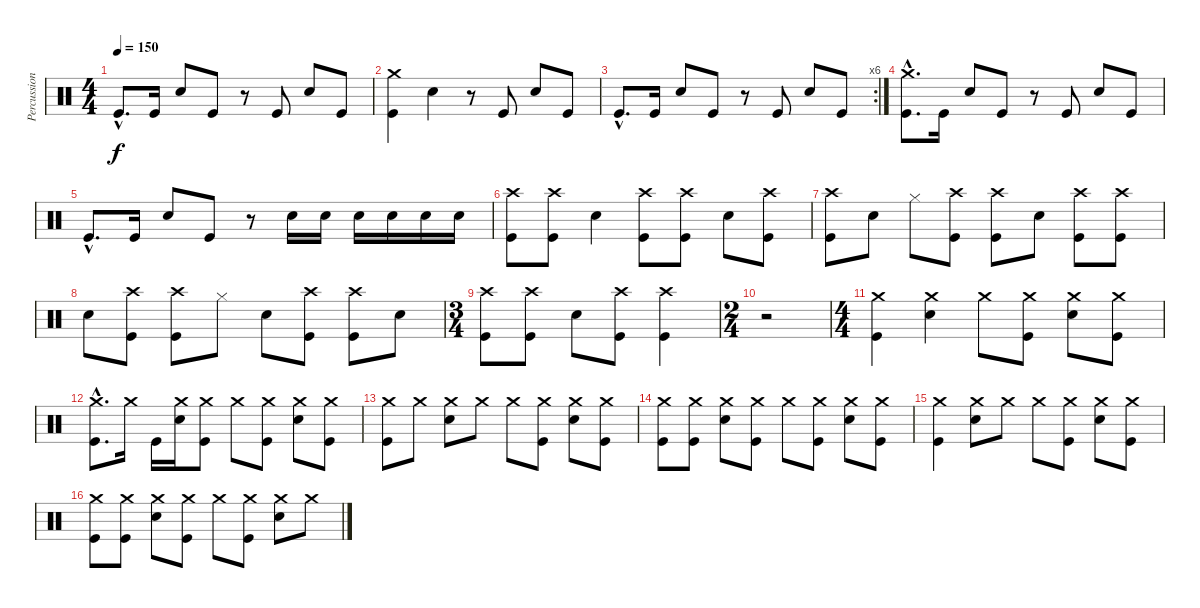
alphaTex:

\track ("Percussion" "Percussion") {instrument percussion}
\staff {score}
\articulation defaults
\ts (4 4)
\tempo 150
\clef neutral
\ks c "Kick (hit)"{hac}.8{d dy f} "Kick (hit)".16 "Electric Snare (hit)".8 "Kick (hit)".8
r.8 "Kick (hit)".8 "Electric Snare (hit)".8 "Kick (hit)".8 |
("Crash medium (hit)" "Kick (hit)").4 "Electric Snare (hit)".4 r.8 "Kick (hit)".8 "Electric Snare (hit)".8 "Kick (hit)".8 |
\rc 6 "Kick (hit)"{hac}.8{d} "Kick (hit)".16 "Electric Snare (hit)".8 "Kick (hit)".8
r.8 "Kick (hit)".8 "Electric Snare (hit)".8 "Kick (hit)".8 |
("Crash medium (hit)"{hac} "Kick (hit)"{hac}).8{d} "Kick (hit)".16 "Electric Snare (hit)".8 "Kick (hit)".8 r.8 "Kick (hit)".8 "Electric Snare (hit)".8 "Kick (hit)".8 |
"Kick (hit)"{hac}.8{d} "Kick (hit)".16 "Electric Snare (hit)".8 "Kick (hit)".8 r.8 "Electric Snare (hit)".16 "Electric Snare (hit)".16 "Electric Snare (hit)".16 "Electric Snare (hit)".16 "Electric Snare (hit)".16 "Electric Snare (hit)".16 |
("Kick (hit)" "Crash high (hit)").8 ("Kick (hit)" "Crash high (hit)").8 "Electric Snare (hit)".4 ("Kick (hit)" "Crash high (hit)").8 ("Kick (hit)" "Crash high (hit)").8 "Electric Snare (hit)".8 ("Crash high (hit)" "Kick (hit)").8 |
("Crash high (hit)" "Kick (hit)").8 "Electric Snare (hit)".8 "Hi-Hat (closed)".8 ("Crash high (hit)" "Kick (hit)").8 ("Crash high (hit)" "Kick (hit)").8 "Electric Snare (hit)".8 ("Crash high (hit)" "Kick (hit)").8 ("Crash high (hit)" "Kick (hit)").8 |
"Electric Snare (hit)".8 ("Crash high (hit)" "Kick (hit)").8 ("Crash high (hit)" "Kick (hit)").8 "Hi-Hat (closed)".8 "Electric Snare (hit)".8 ("Crash high (hit)" "Kick (hit)").8 ("Crash high (hit)" "Kick (hit)").8 "Electric Snare (hit)".8 |
\ts (3 4)
("Crash high (hit)" "Kick (hit)").8 ("Crash high (hit)" "Kick (hit)").8 "Electric Snare (hit)".8 ("Crash high (hit)" "Kick (hit)").8 ("Crash high (hit)" "Kick (hit)").4 |
\ts (2 4)
r.2 |
\ts (4 4)
("Kick (hit)" "Crash medium (hit)").4 ("Crash medium (hit)" "Electric Snare (hit)").4 "Crash medium (hit)".8 ("Kick (hit)" "Crash medium (hit)").8 ("Electric Snare (hit)" "Crash medium (hit)").8 ("Kick (hit)" "Crash medium (hit)").8 |
("Crash medium (hit)"{hac} "Kick (hit)"{hac}).8{d} "Crash medium (hit)".16 "Kick (hit)".16 ("Crash medium (hit)" "Electric Snare (hit)").16 ("Crash medium (hit)" "Kick (hit)").8 "Crash medium (hit)".8 ("Crash medium (hit)" "Kick (hit)").8 ("Crash medium (hit)" "Electric Snare (hit)").8 ("Crash medium (hit)" "Kick (hit)").8 |
("Kick (hit)" "Crash medium (hit)").8 "Crash medium (hit)".8 ("Electric Snare (hit)" "Crash medium (hit)").8 "Crash medium (hit)".8 "Crash medium (hit)".8 ("Kick (hit)" "Crash medium (hit)").8 ("Electric Snare (hit)" "Crash medium (hit)").8 ("Kick (hit)" "Crash medium (hit)").8 |
("Crash medium (hit)" "Kick (hit)").8 ("Crash medium (hit)" "Kick (hit)").8 ("Crash medium (hit)" "Electric Snare (hit)").8 ("Crash medium (hit)" "Kick (hit)").8 "Crash medium (hit)".8 ("Crash medium (hit)" "Kick (hit)").8 ("Crash medium (hit)" "Electric Snare (hit)").8 ("Crash medium (hit)" "Kick (hit)").8 |
("Crash medium (hit)" "Kick (hit)").4 ("Crash medium (hit)" "Electric Snare (hit)").8 "Crash medium (hit)".8 "Crash medium (hit)".8 ("Crash medium (hit)" "Kick (hit)").8 ("Crash medium (hit)" "Electric Snare (hit)").8 ("Crash medium (hit)" "Kick (hit)").8 |
("Crash medium (hit)" "Kick (hit)").8 ("Crash medium (hit)" "Kick (hit)").8 ("Crash medium (hit)" "Electric Snare (hit)").8 ("Crash medium (hit)" "Kick (hit)").8 "Crash medium (hit)".8 ("Crash medium (hit)" "Kick (hit)").8 ("Crash medium (hit)" "Electric Snare (hit)").8 "Crash medium (hit)".8
